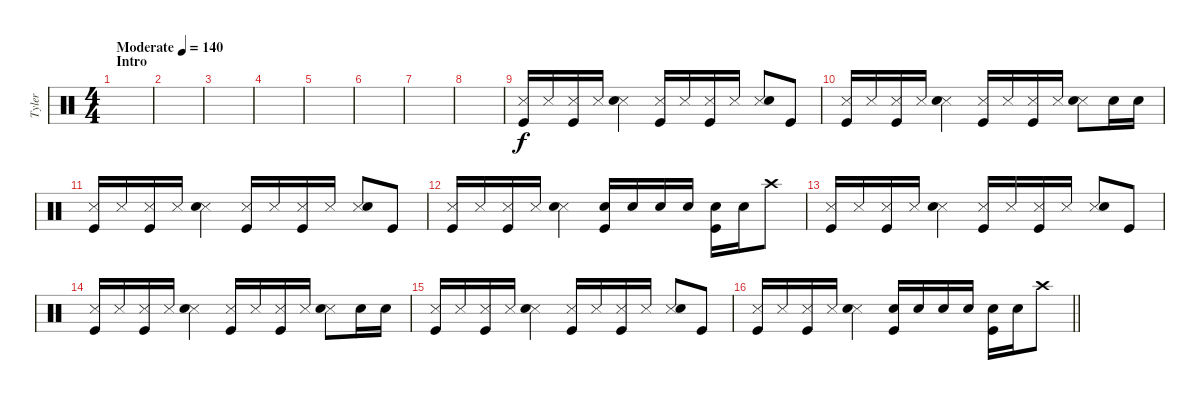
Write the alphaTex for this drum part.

\track ("Tyler" "Tyler") {instrument percussion}
\staff {score}
\articulation defaults
\ts (4 4)
\section ("" "Intro")
\tempo (140 "Moderate")
\clef neutral
\ks c
|
|
|
|
|
|
|
|
("Snare (side stick) 3" "Kick (hit)").16 "Snare (side stick) 3".16 ("Snare (side stick) 3" "Kick (hit)").16 "Snare (side stick) 3".16 ("Snare (side stick) 3" "Snare (hit) 2").4 ("Snare (side stick) 3" "Kick (hit)").16 "Snare (side stick) 3".16 ("Snare (side stick) 3" "Kick (hit)").16 "Snare (side stick) 3".16 ("Snare (side stick) 3" "Snare (hit) 2").8 "Kick (hit)".8 |
("Snare (side stick) 3" "Kick (hit)").16 "Snare (side stick) 3".16 ("Snare (side stick) 3" "Kick (hit)").16 "Snare (side stick) 3".16 ("Snare (side stick) 3" "Snare (hit) 2").4 ("Snare (side stick) 3" "Kick (hit)").16 "Snare (side stick) 3".16 ("Snare (side stick) 3" "Kick (hit)").16 "Snare (side stick) 3".16 ("Snare (side stick) 3" "Snare (hit) 2").8 "Snare (hit) 2".16 "Snare (hit) 2".16 |
("Snare (side stick) 3" "Kick (hit)").16 "Snare (side stick) 3".16 ("Snare (side stick) 3" "Kick (hit)").16 "Snare (side stick) 3".16 ("Snare (side stick) 3" "Snare (hit) 2").4 ("Snare (side stick) 3" "Kick (hit)").16 "Snare (side stick) 3".16 ("Snare (side stick) 3" "Kick (hit)").16 "Snare (side stick) 3".16 ("Snare (side stick) 3" "Snare (hit) 2").8 "Kick (hit)".8 |
("Snare (side stick) 3" "Kick (hit)").16 "Snare (side stick) 3".16 ("Snare (side stick) 3" "Kick (hit)").16 "Snare (side stick) 3".16 ("Snare (side stick) 3" "Snare (hit) 2").4 ("Snare (hit) 2" "Kick (hit)").16 "Snare (hit) 2".16 "Snare (hit) 2".16 "Snare (hit) 2".16 ("Snare (hit) 2" "Kick (hit)").16 "Snare (hit) 2".16 "Crash high (hit)".8 |
("Snare (side stick) 3" "Kick (hit)").16 "Snare (side stick) 3".16 ("Snare (side stick) 3" "Kick (hit)").16 "Snare (side stick) 3".16 ("Snare (side stick) 3" "Snare (hit) 2").4 ("Snare (side stick) 3" "Kick (hit)").16 "Snare (side stick) 3".16 ("Snare (side stick) 3" "Kick (hit)").16 "Snare (side stick) 3".16 ("Snare (side stick) 3" "Snare (hit) 2").8 "Kick (hit)".8 |
("Snare (side stick) 3" "Kick (hit)").16 "Snare (side stick) 3".16 ("Snare (side stick) 3" "Kick (hit)").16 "Snare (side stick) 3".16 ("Snare (side stick) 3" "Snare (hit) 2").4 ("Snare (side stick) 3" "Kick (hit)").16 "Snare (side stick) 3".16 ("Snare (side stick) 3" "Kick (hit)").16 "Snare (side stick) 3".16 ("Snare (side stick) 3" "Snare (hit) 2").8 "Snare (hit) 2".16 "Snare (hit) 2".16 |
("Snare (side stick) 3" "Kick (hit)").16 "Snare (side stick) 3".16 ("Snare (side stick) 3" "Kick (hit)").16 "Snare (side stick) 3".16 ("Snare (side stick) 3" "Snare (hit) 2").4 ("Snare (side stick) 3" "Kick (hit)").16 "Snare (side stick) 3".16 ("Snare (side stick) 3" "Kick (hit)").16 "Snare (side stick) 3".16 ("Snare (side stick) 3" "Snare (hit) 2").8 "Kick (hit)".8 |
\barLineRight lightlight
("Snare (side stick) 3" "Kick (hit)").16 "Snare (side stick) 3".16 ("Snare (side stick) 3" "Kick (hit)").16 "Snare (side stick) 3".16 ("Snare (side stick) 3" "Snare (hit) 2").4 ("Snare (hit) 2" "Kick (hit)").16 "Snare (hit) 2".16 "Snare (hit) 2".16 "Snare (hit) 2".16 ("Snare (hit) 2" "Kick (hit)").16 "Snare (hit) 2".16 "Crash high (hit)".8
